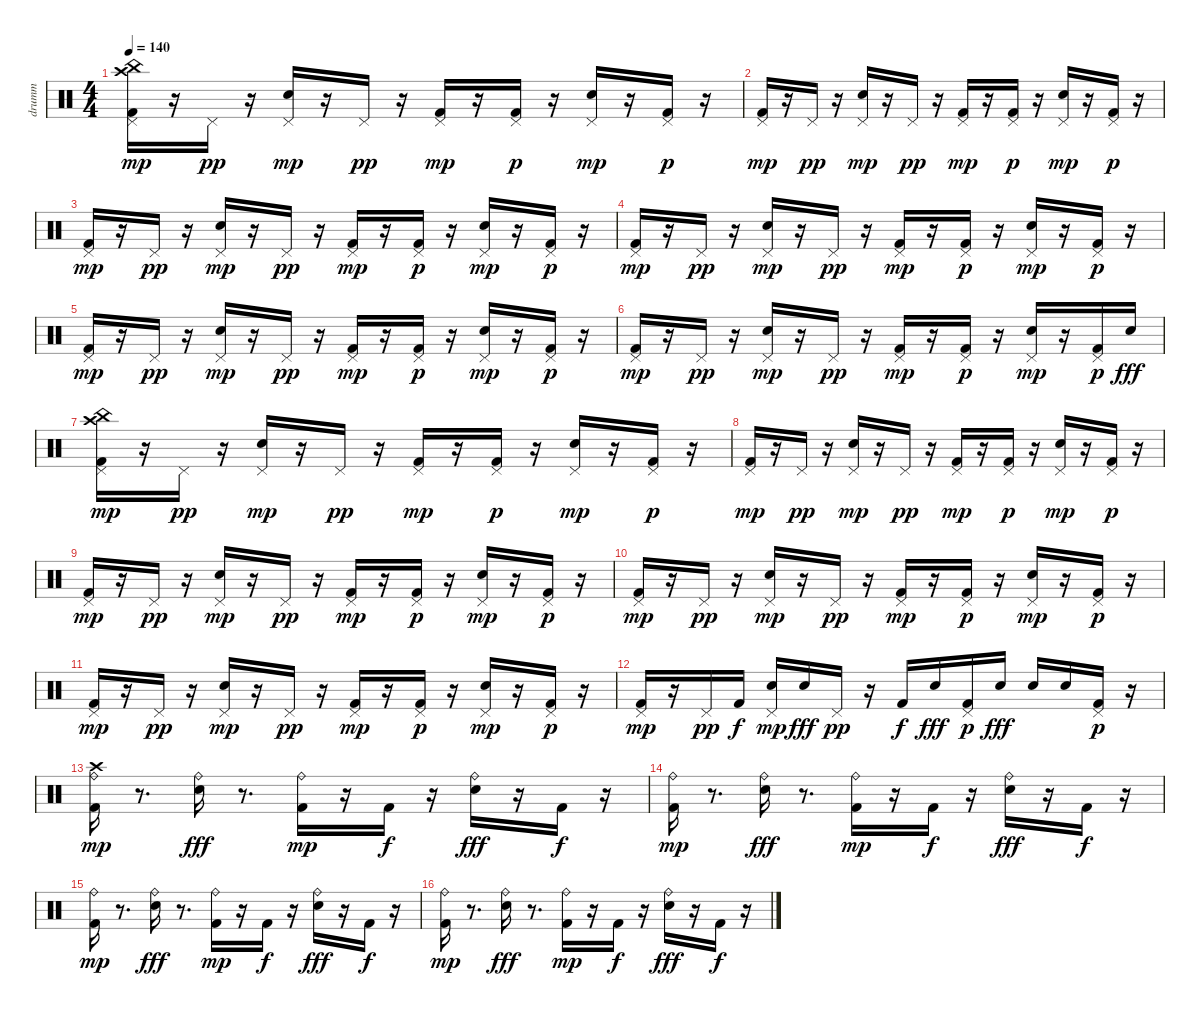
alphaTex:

\track ("drumm" "drumm") {instrument percussion}
\staff {score}
\articulation defaults
\ts (4 4)
\tempo 140
\clef neutral
\ks c
("Crash high (hit)" "China (hit)" "Kick (hit) 2" "Pedal Hi-Hat (hit)").16{dy mp} r.16 "Pedal Hi-Hat (hit)".16{dy pp} r.16 ("Electric Snare (hit)" "Pedal Hi-Hat (hit)").16{dy mp} r.16 "Pedal Hi-Hat (hit)".16{dy pp} r.16 ("Kick (hit) 2" "Pedal Hi-Hat (hit)").16{dy mp} r.16 ("Kick (hit) 2" "Pedal Hi-Hat (hit)").16{dy p} r.16 ("Electric Snare (hit)" "Pedal Hi-Hat (hit)").16{dy mp} r.16 ("Kick (hit) 2" "Pedal Hi-Hat (hit)").16{dy p} r.16 |
("Kick (hit) 2" "Pedal Hi-Hat (hit)").16{dy mp} r.16 "Pedal Hi-Hat (hit)".16{dy pp} r.16 ("Electric Snare (hit)" "Pedal Hi-Hat (hit)").16{dy mp} r.16 "Pedal Hi-Hat (hit)".16{dy pp} r.16 ("Kick (hit) 2" "Pedal Hi-Hat (hit)").16{dy mp} r.16 ("Kick (hit) 2" "Pedal Hi-Hat (hit)").16{dy p} r.16 ("Electric Snare (hit)" "Pedal Hi-Hat (hit)").16{dy mp} r.16 ("Kick (hit) 2" "Pedal Hi-Hat (hit)").16{dy p} r.16 |
("Kick (hit) 2" "Pedal Hi-Hat (hit)").16{dy mp} r.16 "Pedal Hi-Hat (hit)".16{dy pp} r.16 ("Electric Snare (hit)" "Pedal Hi-Hat (hit)").16{dy mp} r.16 "Pedal Hi-Hat (hit)".16{dy pp} r.16 ("Kick (hit) 2" "Pedal Hi-Hat (hit)").16{dy mp} r.16 ("Kick (hit) 2" "Pedal Hi-Hat (hit)").16{dy p} r.16 ("Electric Snare (hit)" "Pedal Hi-Hat (hit)").16{dy mp} r.16 ("Kick (hit) 2" "Pedal Hi-Hat (hit)").16{dy p} r.16 |
("Kick (hit) 2" "Pedal Hi-Hat (hit)").16{dy mp} r.16 "Pedal Hi-Hat (hit)".16{dy pp} r.16 ("Electric Snare (hit)" "Pedal Hi-Hat (hit)").16{dy mp} r.16 "Pedal Hi-Hat (hit)".16{dy pp} r.16 ("Kick (hit) 2" "Pedal Hi-Hat (hit)").16{dy mp} r.16 ("Kick (hit) 2" "Pedal Hi-Hat (hit)").16{dy p} r.16 ("Electric Snare (hit)" "Pedal Hi-Hat (hit)").16{dy mp} r.16 ("Kick (hit) 2" "Pedal Hi-Hat (hit)").16{dy p} r.16 |
("Kick (hit) 2" "Pedal Hi-Hat (hit)").16{dy mp} r.16 "Pedal Hi-Hat (hit)".16{dy pp} r.16 ("Electric Snare (hit)" "Pedal Hi-Hat (hit)").16{dy mp} r.16 "Pedal Hi-Hat (hit)".16{dy pp} r.16 ("Kick (hit) 2" "Pedal Hi-Hat (hit)").16{dy mp} r.16 ("Kick (hit) 2" "Pedal Hi-Hat (hit)").16{dy p} r.16 ("Electric Snare (hit)" "Pedal Hi-Hat (hit)").16{dy mp} r.16 ("Kick (hit) 2" "Pedal Hi-Hat (hit)").16{dy p} r.16 |
("Kick (hit) 2" "Pedal Hi-Hat (hit)").16{dy mp} r.16 "Pedal Hi-Hat (hit)".16{dy pp} r.16 ("Electric Snare (hit)" "Pedal Hi-Hat (hit)").16{dy mp} r.16 "Pedal Hi-Hat (hit)".16{dy pp} r.16 ("Kick (hit) 2" "Pedal Hi-Hat (hit)").16{dy mp} r.16 ("Kick (hit) 2" "Pedal Hi-Hat (hit)").16{dy p} r.16 ("Electric Snare (hit)" "Pedal Hi-Hat (hit)").16{dy mp} r.16 ("Kick (hit) 2" "Pedal Hi-Hat (hit)").16{dy p} "Electric Snare (hit)".16{dy fff} |
("China (hit)" "Crash high (hit)" "Kick (hit) 2" "Pedal Hi-Hat (hit)").16{dy mp} r.16 "Pedal Hi-Hat (hit)".16{dy pp} r.16 ("Electric Snare (hit)" "Pedal Hi-Hat (hit)").16{dy mp} r.16 "Pedal Hi-Hat (hit)".16{dy pp} r.16 ("Kick (hit) 2" "Pedal Hi-Hat (hit)").16{dy mp} r.16 ("Kick (hit) 2" "Pedal Hi-Hat (hit)").16{dy p} r.16 ("Electric Snare (hit)" "Pedal Hi-Hat (hit)").16{dy mp} r.16 ("Kick (hit) 2" "Pedal Hi-Hat (hit)").16{dy p} r.16 |
("Kick (hit) 2" "Pedal Hi-Hat (hit)").16{dy mp} r.16 "Pedal Hi-Hat (hit)".16{dy pp} r.16 ("Electric Snare (hit)" "Pedal Hi-Hat (hit)").16{dy mp} r.16 "Pedal Hi-Hat (hit)".16{dy pp} r.16 ("Kick (hit) 2" "Pedal Hi-Hat (hit)").16{dy mp} r.16 ("Kick (hit) 2" "Pedal Hi-Hat (hit)").16{dy p} r.16 ("Electric Snare (hit)" "Pedal Hi-Hat (hit)").16{dy mp} r.16 ("Kick (hit) 2" "Pedal Hi-Hat (hit)").16{dy p} r.16 |
("Kick (hit) 2" "Pedal Hi-Hat (hit)").16{dy mp} r.16 "Pedal Hi-Hat (hit)".16{dy pp} r.16 ("Electric Snare (hit)" "Pedal Hi-Hat (hit)").16{dy mp} r.16 "Pedal Hi-Hat (hit)".16{dy pp} r.16 ("Kick (hit) 2" "Pedal Hi-Hat (hit)").16{dy mp} r.16 ("Kick (hit) 2" "Pedal Hi-Hat (hit)").16{dy p} r.16 ("Electric Snare (hit)" "Pedal Hi-Hat (hit)").16{dy mp} r.16 ("Kick (hit) 2" "Pedal Hi-Hat (hit)").16{dy p} r.16 |
("Kick (hit) 2" "Pedal Hi-Hat (hit)").16{dy mp} r.16 "Pedal Hi-Hat (hit)".16{dy pp} r.16 ("Electric Snare (hit)" "Pedal Hi-Hat (hit)").16{dy mp} r.16 "Pedal Hi-Hat (hit)".16{dy pp} r.16 ("Kick (hit) 2" "Pedal Hi-Hat (hit)").16{dy mp} r.16 ("Kick (hit) 2" "Pedal Hi-Hat (hit)").16{dy p} r.16 ("Electric Snare (hit)" "Pedal Hi-Hat (hit)").16{dy mp} r.16 ("Kick (hit) 2" "Pedal Hi-Hat (hit)").16{dy p} r.16 |
("Kick (hit) 2" "Pedal Hi-Hat (hit)").16{dy mp} r.16 "Pedal Hi-Hat (hit)".16{dy pp} r.16 ("Electric Snare (hit)" "Pedal Hi-Hat (hit)").16{dy mp} r.16 "Pedal Hi-Hat (hit)".16{dy pp} r.16 ("Kick (hit) 2" "Pedal Hi-Hat (hit)").16{dy mp} r.16 ("Kick (hit) 2" "Pedal Hi-Hat (hit)").16{dy p} r.16 ("Electric Snare (hit)" "Pedal Hi-Hat (hit)").16{dy mp} r.16 ("Kick (hit) 2" "Pedal Hi-Hat (hit)").16{dy p} r.16 |
("Kick (hit) 2" "Pedal Hi-Hat (hit)").16{dy mp} r.16 "Pedal Hi-Hat (hit)".16{dy pp} "Kick (hit) 2".16{dy f} ("Electric Snare (hit)" "Pedal Hi-Hat (hit)").16{dy mp} "Electric Snare (hit)".16{dy fff} "Pedal Hi-Hat (hit)".16{dy pp} r.16 "Kick (hit) 2".16{dy f} "Electric Snare (hit)".16{dy fff} ("Kick (hit) 2" "Pedal Hi-Hat (hit)").16{dy p} "Electric Snare (hit)".16{dy fff} "Electric Snare (hit)".16 "Electric Snare (hit)".16 ("Kick (hit) 2" "Pedal Hi-Hat (hit)").16{dy p} r.16 |
("Crash high (hit)" "Ride (bell)" "Kick (hit) 2").16{dy mp} r.8{d} ("Ride (bell)" "Electric Snare (hit)").16{dy fff} r.8{d} ("Ride (bell)" "Kick (hit) 2").16{dy mp} r.16 "Kick (hit) 2".16{dy f} r.16 ("Ride (bell)" "Electric Snare (hit)").16{dy fff} r.16 "Kick (hit) 2".16{dy f} r.16 |
("Ride (bell)" "Kick (hit) 2").16{dy mp} r.8{d} ("Ride (bell)" "Electric Snare (hit)").16{dy fff} r.8{d} ("Ride (bell)" "Kick (hit) 2").16{dy mp} r.16 "Kick (hit) 2".16{dy f} r.16 ("Ride (bell)" "Electric Snare (hit)").16{dy fff} r.16 "Kick (hit) 2".16{dy f} r.16 |
("Ride (bell)" "Kick (hit) 2").16{dy mp} r.8{d} ("Ride (bell)" "Electric Snare (hit)").16{dy fff} r.8{d} ("Ride (bell)" "Kick (hit) 2").16{dy mp} r.16 "Kick (hit) 2".16{dy f} r.16 ("Ride (bell)" "Electric Snare (hit)").16{dy fff} r.16 "Kick (hit) 2".16{dy f} r.16 |
("Ride (bell)" "Kick (hit) 2").16{dy mp} r.8{d} ("Ride (bell)" "Electric Snare (hit)").16{dy fff} r.8{d} ("Ride (bell)" "Kick (hit) 2").16{dy mp} r.16 "Kick (hit) 2".16{dy f} r.16 ("Ride (bell)" "Electric Snare (hit)").16{dy fff} r.16 "Kick (hit) 2".16{dy f} r.16
